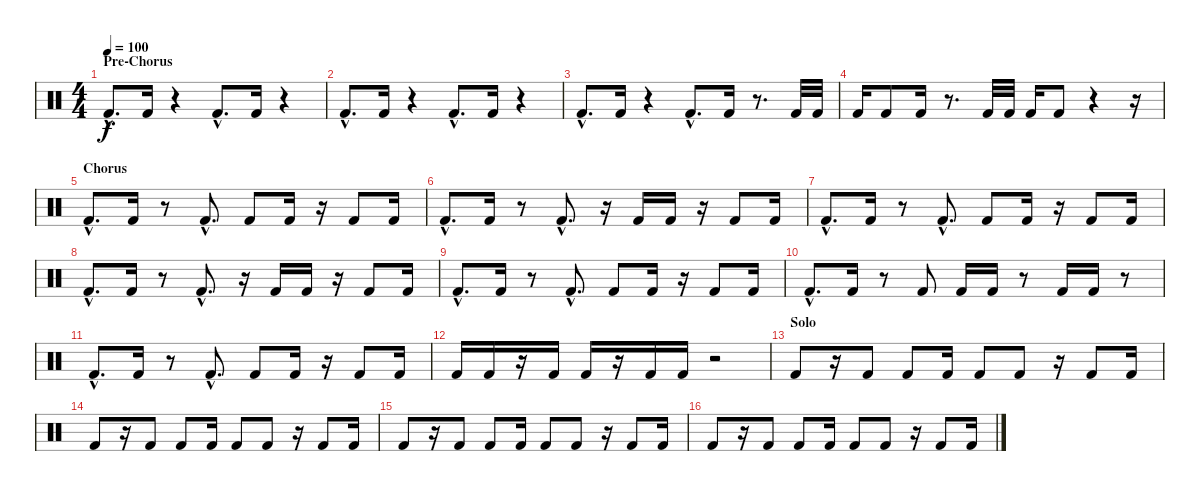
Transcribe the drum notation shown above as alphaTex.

\track "" {instrument percussion}
\staff {score}
\articulation defaults
\ts (4 4)
\section ("" "Pre-Chorus")
\tempo 100
\clef neutral
\ks c "Kick (hit) 2"{hac}.8{d dy f} "Kick (hit) 2".16
r.4 "Kick (hit) 2"{hac}.8{d} "Kick (hit) 2".16 r.4 |
"Kick (hit) 2"{hac}.8{d} "Kick (hit) 2".16 r.4 "Kick (hit) 2"{hac}.8{d} "Kick (hit) 2".16 r.4 |
"Kick (hit) 2"{hac}.8{d} "Kick (hit) 2".16 r.4 "Kick (hit) 2"{hac}.8{d} "Kick (hit) 2".16 r.8{d} "Kick (hit) 2".32 "Kick (hit) 2".32 |
"Kick (hit) 2".16 "Kick (hit) 2".8 "Kick (hit) 2".16 r.8{d} "Kick (hit) 2".32 "Kick (hit) 2".32 "Kick (hit) 2".16 "Kick (hit) 2".8 r.4 r.16 |
\section ("" "Chorus")
"Kick (hit) 2"{hac}.8{d} "Kick (hit) 2".16 r.8 "Kick (hit) 2"{hac}.8{d} "Kick (hit) 2".8 "Kick (hit) 2".16 r.16 "Kick (hit) 2".8 "Kick (hit) 2".16 |
"Kick (hit) 2"{hac}.8{d} "Kick (hit) 2".16 r.8 "Kick (hit) 2"{hac}.8{d} r.16 "Kick (hit) 2".16 "Kick (hit) 2".16 r.16 "Kick (hit) 2".8 "Kick (hit) 2".16 |
"Kick (hit) 2"{hac}.8{d} "Kick (hit) 2".16 r.8 "Kick (hit) 2"{hac}.8{d} "Kick (hit) 2".8 "Kick (hit) 2".16 r.16 "Kick (hit) 2".8 "Kick (hit) 2".16 |
"Kick (hit) 2"{hac}.8{d} "Kick (hit) 2".16 r.8 "Kick (hit) 2"{hac}.8{d} r.16 "Kick (hit) 2".16 "Kick (hit) 2".16 r.16 "Kick (hit) 2".8 "Kick (hit) 2".16 |
"Kick (hit) 2"{hac}.8{d} "Kick (hit) 2".16 r.8 "Kick (hit) 2"{hac}.8{d} "Kick (hit) 2".8 "Kick (hit) 2".16 r.16 "Kick (hit) 2".8 "Kick (hit) 2".16 |
"Kick (hit) 2"{hac}.8{d} "Kick (hit) 2".16 r.8 "Kick (hit) 2".8 "Kick (hit) 2".16 "Kick (hit) 2".16 r.8 "Kick (hit) 2".16 "Kick (hit) 2".16 r.8 |
"Kick (hit) 2"{hac}.8{d} "Kick (hit) 2".16 r.8 "Kick (hit) 2"{hac}.8{d} "Kick (hit) 2".8 "Kick (hit) 2".16 r.16 "Kick (hit) 2".8 "Kick (hit) 2".16 |
"Kick (hit) 2".16 "Kick (hit) 2".16 r.16 "Kick (hit) 2".16 "Kick (hit) 2".16 r.16 "Kick (hit) 2".16 "Kick (hit) 2".16 r.2 |
\section ("" "Solo")
"Kick (hit) 2".8 r.16 "Kick (hit) 2".8 "Kick (hit) 2".8 "Kick (hit) 2".16 "Kick (hit) 2".8 "Kick (hit) 2".8 r.16 "Kick (hit) 2".8 "Kick (hit) 2".16 |
"Kick (hit) 2".8 r.16 "Kick (hit) 2".8 "Kick (hit) 2".8 "Kick (hit) 2".16 "Kick (hit) 2".8 "Kick (hit) 2".8 r.16 "Kick (hit) 2".8 "Kick (hit) 2".16 |
"Kick (hit) 2".8 r.16 "Kick (hit) 2".8 "Kick (hit) 2".8 "Kick (hit) 2".16 "Kick (hit) 2".8 "Kick (hit) 2".8 r.16 "Kick (hit) 2".8 "Kick (hit) 2".16 |
"Kick (hit) 2".8 r.16 "Kick (hit) 2".8 "Kick (hit) 2".8 "Kick (hit) 2".16 "Kick (hit) 2".8 "Kick (hit) 2".8 r.16 "Kick (hit) 2".8 "Kick (hit) 2".16
